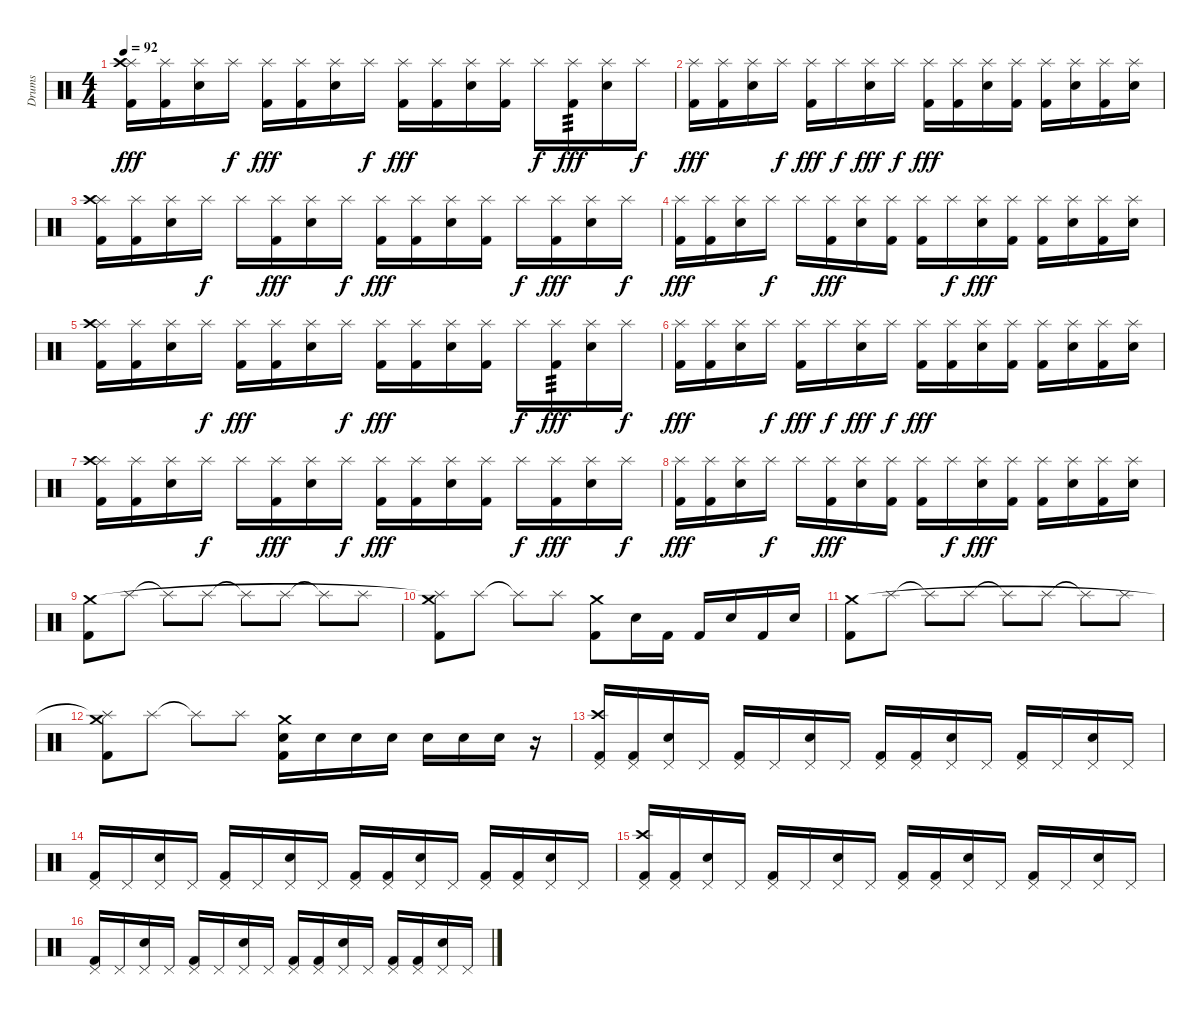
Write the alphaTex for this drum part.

\track ("Drums" "Drums") {instrument percussion}
\staff {score}
\articulation defaults
\ts (4 4)
\tempo 92
\clef neutral
\ks c
("Kick (hit) 2" "Splash (hit)" "Crash high (hit)").16{dy fff} ("Kick (hit) 2" "Splash (hit)").16 ("Electric Snare (hit)" "Splash (hit)").16 "Splash (hit)".16{dy f} ("Kick (hit) 2" "Splash (hit)").16{dy fff} ("Kick (hit) 2" "Splash (hit)").16 ("Electric Snare (hit)" "Splash (hit)").16 "Splash (hit)".16{dy f} ("Kick (hit) 2" "Splash (hit)").16{dy fff} ("Kick (hit) 2" "Splash (hit)").16 ("Electric Snare (hit)" "Splash (hit)").16 ("Kick (hit) 2" "Splash (hit)").16 "Splash (hit)".16{dy f} ("Kick (hit) 2" "Splash (hit)").16{tp 3 dy fff} ("Electric Snare (hit)" "Splash (hit)").16 "Splash (hit)".16{dy f} |
("Kick (hit) 2" "Splash (hit)").16{dy fff} ("Kick (hit) 2" "Splash (hit)").16 ("Electric Snare (hit)" "Splash (hit)").16 "Splash (hit)".16{dy f} ("Kick (hit) 2" "Splash (hit)").16{dy fff} "Splash (hit)".16{dy f} ("Electric Snare (hit)" "Splash (hit)").16{dy fff} "Splash (hit)".16{dy f} ("Kick (hit) 2" "Splash (hit)").16{dy fff} ("Kick (hit) 2" "Splash (hit)").16 ("Electric Snare (hit)" "Splash (hit)").16 ("Kick (hit) 2" "Splash (hit)").16 ("Kick (hit) 2" "Splash (hit)").16 ("Electric Snare (hit)" "Splash (hit)").16 ("Kick (hit) 2" "Splash (hit)").16 ("Electric Snare (hit)" "Splash (hit)").16 |
("Kick (hit) 2" "Splash (hit)" "Crash high (hit)").16 ("Kick (hit) 2" "Splash (hit)").16 ("Electric Snare (hit)" "Splash (hit)").16 "Splash (hit)".16{dy f} "Splash (hit)".16 ("Kick (hit) 2" "Splash (hit)").16{dy fff} ("Electric Snare (hit)" "Splash (hit)").16 "Splash (hit)".16{dy f} ("Kick (hit) 2" "Splash (hit)").16{dy fff} ("Kick (hit) 2" "Splash (hit)").16 ("Electric Snare (hit)" "Splash (hit)").16 ("Kick (hit) 2" "Splash (hit)").16 "Splash (hit)".16{dy f} ("Kick (hit) 2" "Splash (hit)").16{dy fff} ("Electric Snare (hit)" "Splash (hit)").16 "Splash (hit)".16{dy f} |
("Kick (hit) 2" "Splash (hit)").16{dy fff} ("Kick (hit) 2" "Splash (hit)").16 ("Electric Snare (hit)" "Splash (hit)").16 "Splash (hit)".16{dy f} "Splash (hit)".16 ("Kick (hit) 2" "Splash (hit)").16{dy fff} ("Electric Snare (hit)" "Splash (hit)").16 ("Kick (hit) 2" "Splash (hit)").16 ("Kick (hit) 2" "Splash (hit)").16 "Splash (hit)".16{dy f} ("Electric Snare (hit)" "Splash (hit)").16{dy fff} ("Kick (hit) 2" "Splash (hit)").16 ("Kick (hit) 2" "Splash (hit)").16 ("Electric Snare (hit)" "Splash (hit)").16 ("Kick (hit) 2" "Splash (hit)").16 ("Electric Snare (hit)" "Splash (hit)").16 |
("Kick (hit) 2" "Splash (hit)" "Crash high (hit)").16 ("Kick (hit) 2" "Splash (hit)").16 ("Electric Snare (hit)" "Splash (hit)").16 "Splash (hit)".16{dy f} ("Kick (hit) 2" "Splash (hit)").16{dy fff} ("Kick (hit) 2" "Splash (hit)").16 ("Electric Snare (hit)" "Splash (hit)").16 "Splash (hit)".16{dy f} ("Kick (hit) 2" "Splash (hit)").16{dy fff} ("Kick (hit) 2" "Splash (hit)").16 ("Electric Snare (hit)" "Splash (hit)").16 ("Kick (hit) 2" "Splash (hit)").16 "Splash (hit)".16{dy f} ("Kick (hit) 2" "Splash (hit)").16{tp 3 dy fff} ("Electric Snare (hit)" "Splash (hit)").16 "Splash (hit)".16{dy f} |
("Kick (hit) 2" "Splash (hit)").16{dy fff} ("Kick (hit) 2" "Splash (hit)").16 ("Electric Snare (hit)" "Splash (hit)").16 "Splash (hit)".16{dy f} ("Kick (hit) 2" "Splash (hit)").16{dy fff} "Splash (hit)".16{dy f} ("Electric Snare (hit)" "Splash (hit)").16{dy fff} "Splash (hit)".16{dy f} ("Kick (hit) 2" "Splash (hit)").16{dy fff} ("Kick (hit) 2" "Splash (hit)").16 ("Electric Snare (hit)" "Splash (hit)").16 ("Kick (hit) 2" "Splash (hit)").16 ("Kick (hit) 2" "Splash (hit)").16 ("Electric Snare (hit)" "Splash (hit)").16 ("Kick (hit) 2" "Splash (hit)").16 ("Electric Snare (hit)" "Splash (hit)").16 |
("Kick (hit) 2" "Splash (hit)" "Crash high (hit)").16 ("Kick (hit) 2" "Splash (hit)").16 ("Electric Snare (hit)" "Splash (hit)").16 "Splash (hit)".16{dy f} "Splash (hit)".16 ("Kick (hit) 2" "Splash (hit)").16{dy fff} ("Electric Snare (hit)" "Splash (hit)").16 "Splash (hit)".16{dy f} ("Kick (hit) 2" "Splash (hit)").16{dy fff} ("Kick (hit) 2" "Splash (hit)").16 ("Electric Snare (hit)" "Splash (hit)").16 ("Kick (hit) 2" "Splash (hit)").16 "Splash (hit)".16{dy f} ("Kick (hit) 2" "Splash (hit)").16{dy fff} ("Electric Snare (hit)" "Splash (hit)").16 "Splash (hit)".16{dy f} |
("Kick (hit) 2" "Splash (hit)").16{dy fff} ("Kick (hit) 2" "Splash (hit)").16 ("Electric Snare (hit)" "Splash (hit)").16 "Splash (hit)".16{dy f} "Splash (hit)".16 ("Kick (hit) 2" "Splash (hit)").16{dy fff} ("Electric Snare (hit)" "Splash (hit)").16 ("Kick (hit) 2" "Splash (hit)").16 ("Kick (hit) 2" "Splash (hit)").16 "Splash (hit)".16{dy f} ("Electric Snare (hit)" "Splash (hit)").16{dy fff} ("Kick (hit) 2" "Splash (hit)").16 ("Kick (hit) 2" "Splash (hit)").16 ("Electric Snare (hit)" "Splash (hit)").16 ("Kick (hit) 2" "Splash (hit)").16 ("Electric Snare (hit)" "Splash (hit)").16 |
("Kick (hit) 2" "Crash medium (hit)").8 "Splash (hit)".8 "Splash (hit)"{t}.8 "Splash (hit)".8 "Splash (hit)"{t}.8 "Splash (hit)".8 "Splash (hit)"{t}.8 "Splash (hit)".8 |
("Kick (hit) 2" "Splash (hit)"{t} "Crash medium (hit)").8 "Splash (hit)".8 "Splash (hit)"{t}.8 "Splash (hit)".8 ("Kick (hit) 2" "Crash medium (hit)").8 "Electric Snare (hit)".16 "Kick (hit) 2".16 "Kick (hit) 2".16 "Electric Snare (hit)".16 "Kick (hit) 2".16 "Electric Snare (hit)".16 |
("Kick (hit) 2" "Crash medium (hit)").8 "Splash (hit)".8 "Splash (hit)"{t}.8 "Splash (hit)".8 "Splash (hit)"{t}.8 "Splash (hit)".8 "Splash (hit)"{t}.8 "Splash (hit)".8 |
("Kick (hit) 2" "Splash (hit)"{t} "Crash medium (hit)").8 "Splash (hit)".8 "Splash (hit)"{t}.8 "Splash (hit)".8 ("Kick (hit) 2" "Electric Snare (hit)" "Crash medium (hit)").16 "Electric Snare (hit)".16 "Electric Snare (hit)".16 "Electric Snare (hit)".16 "Electric Snare (hit)".16 "Electric Snare (hit)".16 "Electric Snare (hit)".16 r.16 |
("Kick (hit) 2" "Pedal Hi-Hat (hit)" "Crash high (hit)").16 ("Kick (hit) 2" "Pedal Hi-Hat (hit)").16 ("Electric Snare (hit)" "Pedal Hi-Hat (hit)").16 "Pedal Hi-Hat (hit)".16 ("Kick (hit) 2" "Pedal Hi-Hat (hit)").16 "Pedal Hi-Hat (hit)".16 ("Electric Snare (hit)" "Pedal Hi-Hat (hit)").16 "Pedal Hi-Hat (hit)".16 ("Kick (hit) 2" "Pedal Hi-Hat (hit)").16 ("Kick (hit) 2" "Pedal Hi-Hat (hit)").16 ("Electric Snare (hit)" "Pedal Hi-Hat (hit)").16 "Pedal Hi-Hat (hit)".16 ("Kick (hit) 2" "Pedal Hi-Hat (hit)").16 "Pedal Hi-Hat (hit)".16 ("Electric Snare (hit)" "Pedal Hi-Hat (hit)").16 "Pedal Hi-Hat (hit)".16 |
("Kick (hit) 2" "Pedal Hi-Hat (hit)").16 "Pedal Hi-Hat (hit)".16 ("Electric Snare (hit)" "Pedal Hi-Hat (hit)").16 "Pedal Hi-Hat (hit)".16 ("Kick (hit) 2" "Pedal Hi-Hat (hit)").16 "Pedal Hi-Hat (hit)".16 ("Electric Snare (hit)" "Pedal Hi-Hat (hit)").16 "Pedal Hi-Hat (hit)".16 ("Kick (hit) 2" "Pedal Hi-Hat (hit)").16 ("Kick (hit) 2" "Pedal Hi-Hat (hit)").16 ("Electric Snare (hit)" "Pedal Hi-Hat (hit)").16 "Pedal Hi-Hat (hit)".16 ("Kick (hit) 2" "Pedal Hi-Hat (hit)").16 ("Kick (hit) 2" "Pedal Hi-Hat (hit)").16 ("Electric Snare (hit)" "Pedal Hi-Hat (hit)").16 "Pedal Hi-Hat (hit)".16 |
("Kick (hit) 2" "Pedal Hi-Hat (hit)" "Crash high (hit)").16 ("Kick (hit) 2" "Pedal Hi-Hat (hit)").16 ("Electric Snare (hit)" "Pedal Hi-Hat (hit)").16 "Pedal Hi-Hat (hit)".16 ("Kick (hit) 2" "Pedal Hi-Hat (hit)").16 "Pedal Hi-Hat (hit)".16 ("Electric Snare (hit)" "Pedal Hi-Hat (hit)").16 "Pedal Hi-Hat (hit)".16 ("Kick (hit) 2" "Pedal Hi-Hat (hit)").16 ("Kick (hit) 2" "Pedal Hi-Hat (hit)").16 ("Electric Snare (hit)" "Pedal Hi-Hat (hit)").16 "Pedal Hi-Hat (hit)".16 ("Kick (hit) 2" "Pedal Hi-Hat (hit)").16 "Pedal Hi-Hat (hit)".16 ("Electric Snare (hit)" "Pedal Hi-Hat (hit)").16 "Pedal Hi-Hat (hit)".16 |
("Kick (hit) 2" "Pedal Hi-Hat (hit)").16 "Pedal Hi-Hat (hit)".16 ("Electric Snare (hit)" "Pedal Hi-Hat (hit)").16 "Pedal Hi-Hat (hit)".16 ("Kick (hit) 2" "Pedal Hi-Hat (hit)").16 "Pedal Hi-Hat (hit)".16 ("Electric Snare (hit)" "Pedal Hi-Hat (hit)").16 "Pedal Hi-Hat (hit)".16 ("Kick (hit) 2" "Pedal Hi-Hat (hit)").16 ("Kick (hit) 2" "Pedal Hi-Hat (hit)").16 ("Electric Snare (hit)" "Pedal Hi-Hat (hit)").16 "Pedal Hi-Hat (hit)".16 ("Kick (hit) 2" "Pedal Hi-Hat (hit)").16 ("Kick (hit) 2" "Pedal Hi-Hat (hit)").16 ("Electric Snare (hit)" "Pedal Hi-Hat (hit)").16 "Pedal Hi-Hat (hit)".16
